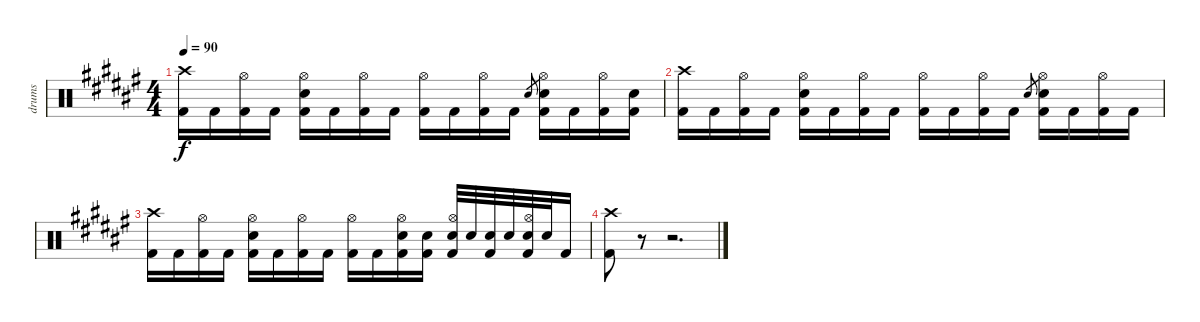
\track ("drums" "drums") {instrument percussion}
\staff {score}
\articulation defaults
\ts (4 4)
\tempo 90
\clef neutral
\ks d#minor
("Crash high (hit)" "Kick (hit) 2").16{dy f} "Kick (hit) 2".16 ("Hi-Hat (open)" "Kick (hit) 2").16 "Kick (hit) 2".16 ("Hi-Hat (open)" "Electric Snare (hit)" "Kick (hit) 2").16 "Kick (hit) 2".16 ("Hi-Hat (open)" "Kick (hit) 2").16 "Kick (hit) 2".16 ("Hi-Hat (open)" "Kick (hit) 2").16 "Kick (hit) 2".16 ("Hi-Hat (open)" "Kick (hit) 2").16 "Kick (hit) 2".16 "Electric Snare (hit)".8{gr} ("Hi-Hat (open)" "Electric Snare (hit)" "Kick (hit) 2").16 "Kick (hit) 2".16 ("Hi-Hat (open)" "Kick (hit) 2").16 ("Electric Snare (hit)" "Kick (hit) 2").16 |
("Crash high (hit)" "Kick (hit) 2").16 "Kick (hit) 2".16 ("Hi-Hat (open)" "Kick (hit) 2").16 "Kick (hit) 2".16 ("Hi-Hat (open)" "Electric Snare (hit)" "Kick (hit) 2").16 "Kick (hit) 2".16 ("Hi-Hat (open)" "Kick (hit) 2").16 "Kick (hit) 2".16 ("Hi-Hat (open)" "Kick (hit) 2").16 "Kick (hit) 2".16 ("Hi-Hat (open)" "Kick (hit) 2").16 "Kick (hit) 2".16 "Electric Snare (hit)".8{gr} ("Hi-Hat (open)" "Electric Snare (hit)" "Kick (hit) 2").16 "Kick (hit) 2".16 ("Hi-Hat (open)" "Kick (hit) 2").16 "Kick (hit) 2".16 |
("Crash high (hit)" "Kick (hit) 2").16 "Kick (hit) 2".16 ("Hi-Hat (open)" "Kick (hit) 2").16 "Kick (hit) 2".16 ("Hi-Hat (open)" "Electric Snare (hit)" "Kick (hit) 2").16 "Kick (hit) 2".16 ("Hi-Hat (open)" "Kick (hit) 2").16 "Kick (hit) 2".16 ("Hi-Hat (open)" "Kick (hit) 2").16 "Kick (hit) 2".16 ("Hi-Hat (open)" "Electric Snare (hit)" "Kick (hit) 2").16 ("Electric Snare (hit)" "Kick (hit) 2").16 ("Hi-Hat (open)" "Electric Snare (hit)" "Kick (hit) 2").32 "Electric Snare (hit)".32 ("Electric Snare (hit)" "Kick (hit) 2").32 "Electric Snare (hit)".32 ("Hi-Hat (open)" "Electric Snare (hit)" "Kick (hit) 2").32 "Electric Snare (hit)".32 "Kick (hit) 2".16 |
("Crash high (hit)" "Kick (hit) 2").8 r.8 r.2{d}
